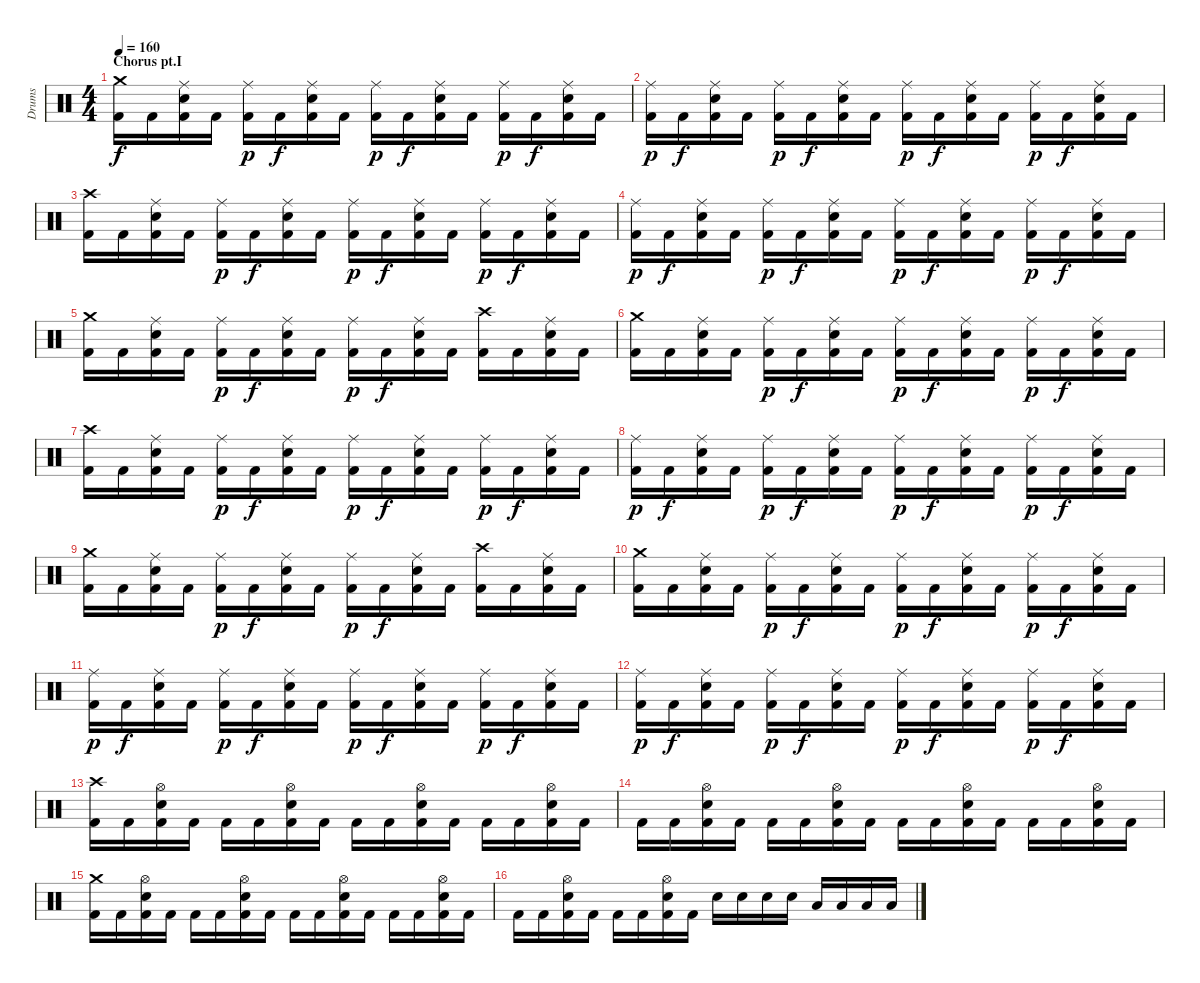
\track ("Drums" "Drums") {instrument percussion}
\staff {score}
\articulation defaults
\ts (4 4)
\section ("" "Chorus pt.I")
\tempo 160
\clef neutral
\ks c
("Crash medium (hit)" "Kick (hit) 2").16{dy f} "Kick (hit) 2".16 ("Ride (middle)" "Snare (hit) 2" "Kick (hit) 2").16 "Kick (hit) 2".16 ("Ride (middle)" "Kick (hit) 2").16{dy p} "Kick (hit) 2".16{dy f} ("Ride (middle)" "Snare (hit) 2" "Kick (hit) 2").16 "Kick (hit) 2".16 ("Ride (middle)" "Kick (hit) 2").16{dy p} "Kick (hit) 2".16{dy f} ("Ride (middle)" "Snare (hit) 2" "Kick (hit) 2").16 "Kick (hit) 2".16 ("Ride (middle)" "Kick (hit) 2").16{dy p} "Kick (hit) 2".16{dy f} ("Ride (middle)" "Snare (hit) 2" "Kick (hit) 2").16 "Kick (hit) 2".16 |
("Ride (middle)" "Kick (hit) 2").16{dy p} "Kick (hit) 2".16{dy f} ("Ride (middle)" "Snare (hit) 2" "Kick (hit) 2").16 "Kick (hit) 2".16 ("Ride (middle)" "Kick (hit) 2").16{dy p} "Kick (hit) 2".16{dy f} ("Ride (middle)" "Snare (hit) 2" "Kick (hit) 2").16 "Kick (hit) 2".16 ("Ride (middle)" "Kick (hit) 2").16{dy p} "Kick (hit) 2".16{dy f} ("Ride (middle)" "Snare (hit) 2" "Kick (hit) 2").16 "Kick (hit) 2".16 ("Ride (middle)" "Kick (hit) 2").16{dy p} "Kick (hit) 2".16{dy f} ("Ride (middle)" "Snare (hit) 2" "Kick (hit) 2").16 "Kick (hit) 2".16 |
("Crash high (hit)" "Kick (hit) 2").16 "Kick (hit) 2".16 ("Ride (middle)" "Snare (hit) 2" "Kick (hit) 2").16 "Kick (hit) 2".16 ("Ride (middle)" "Kick (hit) 2").16{dy p} "Kick (hit) 2".16{dy f} ("Ride (middle)" "Snare (hit) 2" "Kick (hit) 2").16 "Kick (hit) 2".16 ("Ride (middle)" "Kick (hit) 2").16{dy p} "Kick (hit) 2".16{dy f} ("Ride (middle)" "Snare (hit) 2" "Kick (hit) 2").16 "Kick (hit) 2".16 ("Ride (middle)" "Kick (hit) 2").16{dy p} "Kick (hit) 2".16{dy f} ("Ride (middle)" "Snare (hit) 2" "Kick (hit) 2").16 "Kick (hit) 2".16 |
("Ride (middle)" "Kick (hit) 2").16{dy p} "Kick (hit) 2".16{dy f} ("Ride (middle)" "Snare (hit) 2" "Kick (hit) 2").16 "Kick (hit) 2".16 ("Ride (middle)" "Kick (hit) 2").16{dy p} "Kick (hit) 2".16{dy f} ("Ride (middle)" "Snare (hit) 2" "Kick (hit) 2").16 "Kick (hit) 2".16 ("Ride (middle)" "Kick (hit) 2").16{dy p} "Kick (hit) 2".16{dy f} ("Ride (middle)" "Snare (hit) 2" "Kick (hit) 2").16 "Kick (hit) 2".16 ("Ride (middle)" "Kick (hit) 2").16{dy p} "Kick (hit) 2".16{dy f} ("Ride (middle)" "Snare (hit) 2" "Kick (hit) 2").16 "Kick (hit) 2".16 |
("Crash medium (hit)" "Kick (hit) 2").16 "Kick (hit) 2".16 ("Ride (middle)" "Snare (hit) 2" "Kick (hit) 2").16 "Kick (hit) 2".16 ("Ride (middle)" "Kick (hit) 2").16{dy p} "Kick (hit) 2".16{dy f} ("Ride (middle)" "Snare (hit) 2" "Kick (hit) 2").16 "Kick (hit) 2".16 ("Ride (middle)" "Kick (hit) 2").16{dy p} "Kick (hit) 2".16{dy f} ("Ride (middle)" "Snare (hit) 2" "Kick (hit) 2").16 "Kick (hit) 2".16 ("Crash high (hit)" "Kick (hit) 2").16 "Kick (hit) 2".16 ("Ride (middle)" "Snare (hit) 2" "Kick (hit) 2").16 "Kick (hit) 2".16 |
("Crash medium (hit)" "Kick (hit) 2").16 "Kick (hit) 2".16 ("Ride (middle)" "Snare (hit) 2" "Kick (hit) 2").16 "Kick (hit) 2".16 ("Ride (middle)" "Kick (hit) 2").16{dy p} "Kick (hit) 2".16{dy f} ("Ride (middle)" "Snare (hit) 2" "Kick (hit) 2").16 "Kick (hit) 2".16 ("Ride (middle)" "Kick (hit) 2").16{dy p} "Kick (hit) 2".16{dy f} ("Ride (middle)" "Snare (hit) 2" "Kick (hit) 2").16 "Kick (hit) 2".16 ("Ride (middle)" "Kick (hit) 2").16{dy p} "Kick (hit) 2".16{dy f} ("Ride (middle)" "Snare (hit) 2" "Kick (hit) 2").16 "Kick (hit) 2".16 |
("Crash high (hit)" "Kick (hit) 2").16 "Kick (hit) 2".16 ("Ride (middle)" "Snare (hit) 2" "Kick (hit) 2").16 "Kick (hit) 2".16 ("Ride (middle)" "Kick (hit) 2").16{dy p} "Kick (hit) 2".16{dy f} ("Ride (middle)" "Snare (hit) 2" "Kick (hit) 2").16 "Kick (hit) 2".16 ("Ride (middle)" "Kick (hit) 2").16{dy p} "Kick (hit) 2".16{dy f} ("Ride (middle)" "Snare (hit) 2" "Kick (hit) 2").16 "Kick (hit) 2".16 ("Ride (middle)" "Kick (hit) 2").16{dy p} "Kick (hit) 2".16{dy f} ("Ride (middle)" "Snare (hit) 2" "Kick (hit) 2").16 "Kick (hit) 2".16 |
("Ride (middle)" "Kick (hit) 2").16{dy p} "Kick (hit) 2".16{dy f} ("Ride (middle)" "Snare (hit) 2" "Kick (hit) 2").16 "Kick (hit) 2".16 ("Ride (middle)" "Kick (hit) 2").16{dy p} "Kick (hit) 2".16{dy f} ("Ride (middle)" "Snare (hit) 2" "Kick (hit) 2").16 "Kick (hit) 2".16 ("Ride (middle)" "Kick (hit) 2").16{dy p} "Kick (hit) 2".16{dy f} ("Ride (middle)" "Snare (hit) 2" "Kick (hit) 2").16 "Kick (hit) 2".16 ("Ride (middle)" "Kick (hit) 2").16{dy p} "Kick (hit) 2".16{dy f} ("Ride (middle)" "Snare (hit) 2" "Kick (hit) 2").16 "Kick (hit) 2".16 |
("Crash medium (hit)" "Kick (hit) 2").16 "Kick (hit) 2".16 ("Ride (middle)" "Snare (hit) 2" "Kick (hit) 2").16 "Kick (hit) 2".16 ("Ride (middle)" "Kick (hit) 2").16{dy p} "Kick (hit) 2".16{dy f} ("Ride (middle)" "Snare (hit) 2" "Kick (hit) 2").16 "Kick (hit) 2".16 ("Ride (middle)" "Kick (hit) 2").16{dy p} "Kick (hit) 2".16{dy f} ("Ride (middle)" "Snare (hit) 2" "Kick (hit) 2").16 "Kick (hit) 2".16 ("Crash high (hit)" "Kick (hit) 2").16 "Kick (hit) 2".16 ("Ride (middle)" "Snare (hit) 2" "Kick (hit) 2").16 "Kick (hit) 2".16 |
("Crash medium (hit)" "Kick (hit) 2").16 "Kick (hit) 2".16 ("Ride (middle)" "Snare (hit) 2" "Kick (hit) 2").16 "Kick (hit) 2".16 ("Ride (middle)" "Kick (hit) 2").16{dy p} "Kick (hit) 2".16{dy f} ("Ride (middle)" "Snare (hit) 2" "Kick (hit) 2").16 "Kick (hit) 2".16 ("Ride (middle)" "Kick (hit) 2").16{dy p} "Kick (hit) 2".16{dy f} ("Ride (middle)" "Snare (hit) 2" "Kick (hit) 2").16 "Kick (hit) 2".16 ("Ride (middle)" "Kick (hit) 2").16{dy p} "Kick (hit) 2".16{dy f} ("Ride (middle)" "Snare (hit) 2" "Kick (hit) 2").16 "Kick (hit) 2".16 |
("Ride (middle)" "Kick (hit) 2").16{dy p} "Kick (hit) 2".16{dy f} ("Ride (middle)" "Snare (hit) 2" "Kick (hit) 2").16 "Kick (hit) 2".16 ("Ride (middle)" "Kick (hit) 2").16{dy p} "Kick (hit) 2".16{dy f} ("Ride (middle)" "Snare (hit) 2" "Kick (hit) 2").16 "Kick (hit) 2".16 ("Ride (middle)" "Kick (hit) 2").16{dy p} "Kick (hit) 2".16{dy f} ("Ride (middle)" "Snare (hit) 2" "Kick (hit) 2").16 "Kick (hit) 2".16 ("Ride (middle)" "Kick (hit) 2").16{dy p} "Kick (hit) 2".16{dy f} ("Ride (middle)" "Snare (hit) 2" "Kick (hit) 2").16 "Kick (hit) 2".16 |
("Ride (middle)" "Kick (hit) 2").16{dy p} "Kick (hit) 2".16{dy f} ("Ride (middle)" "Snare (hit) 2" "Kick (hit) 2").16 "Kick (hit) 2".16 ("Ride (middle)" "Kick (hit) 2").16{dy p} "Kick (hit) 2".16{dy f} ("Ride (middle)" "Snare (hit) 2" "Kick (hit) 2").16 "Kick (hit) 2".16 ("Ride (middle)" "Kick (hit) 2").16{dy p} "Kick (hit) 2".16{dy f} ("Ride (middle)" "Snare (hit) 2" "Kick (hit) 2").16 "Kick (hit) 2".16 ("Ride (middle)" "Kick (hit) 2").16{dy p} "Kick (hit) 2".16{dy f} ("Ride (middle)" "Snare (hit) 2" "Kick (hit) 2").16 "Kick (hit) 2".16 |
("Crash high (hit)" "Kick (hit) 2").16 "Kick (hit) 2".16 ("Hi-Hat (open)" "Snare (hit) 2" "Kick (hit) 2").16 "Kick (hit) 2".16 "Kick (hit) 2".16 "Kick (hit) 2".16 ("Hi-Hat (open)" "Snare (hit) 2" "Kick (hit) 2").16 "Kick (hit) 2".16 "Kick (hit) 2".16 "Kick (hit) 2".16 ("Hi-Hat (open)" "Snare (hit) 2" "Kick (hit) 2").16 "Kick (hit) 2".16 "Kick (hit) 2".16 "Kick (hit) 2".16 ("Hi-Hat (open)" "Snare (hit) 2" "Kick (hit) 2").16 "Kick (hit) 2".16 |
"Kick (hit) 2".16 "Kick (hit) 2".16 ("Hi-Hat (open)" "Snare (hit) 2" "Kick (hit) 2").16 "Kick (hit) 2".16 "Kick (hit) 2".16 "Kick (hit) 2".16 ("Hi-Hat (open)" "Snare (hit) 2" "Kick (hit) 2").16 "Kick (hit) 2".16 "Kick (hit) 2".16 "Kick (hit) 2".16 ("Hi-Hat (open)" "Snare (hit) 2" "Kick (hit) 2").16 "Kick (hit) 2".16 "Kick (hit) 2".16 "Kick (hit) 2".16 ("Hi-Hat (open)" "Snare (hit) 2" "Kick (hit) 2").16 "Kick (hit) 2".16 |
("Crash medium (hit)" "Kick (hit) 2").16 "Kick (hit) 2".16 ("Hi-Hat (open)" "Snare (hit) 2" "Kick (hit) 2").16 "Kick (hit) 2".16 "Kick (hit) 2".16 "Kick (hit) 2".16 ("Hi-Hat (open)" "Snare (hit) 2" "Kick (hit) 2").16 "Kick (hit) 2".16 "Kick (hit) 2".16 "Kick (hit) 2".16 ("Hi-Hat (open)" "Snare (hit) 2" "Kick (hit) 2").16 "Kick (hit) 2".16 "Kick (hit) 2".16 "Kick (hit) 2".16 ("Hi-Hat (open)" "Snare (hit) 2" "Kick (hit) 2").16 "Kick (hit) 2".16 |
"Kick (hit) 2".16 "Kick (hit) 2".16 ("Hi-Hat (open)" "Snare (hit) 2" "Kick (hit) 2").16 "Kick (hit) 2".16 "Kick (hit) 2".16 "Kick (hit) 2".16 ("Hi-Hat (open)" "Snare (hit) 2" "Kick (hit) 2").16 "Kick (hit) 2".16 "Snare (hit) 2".16 "Snare (hit) 2".16 "Snare (hit) 2".16 "Snare (hit) 2".16 "Low Tom (hit)".16 "Low Tom (hit)".16 "Low Tom (hit)".16 "Low Tom (hit)".16
